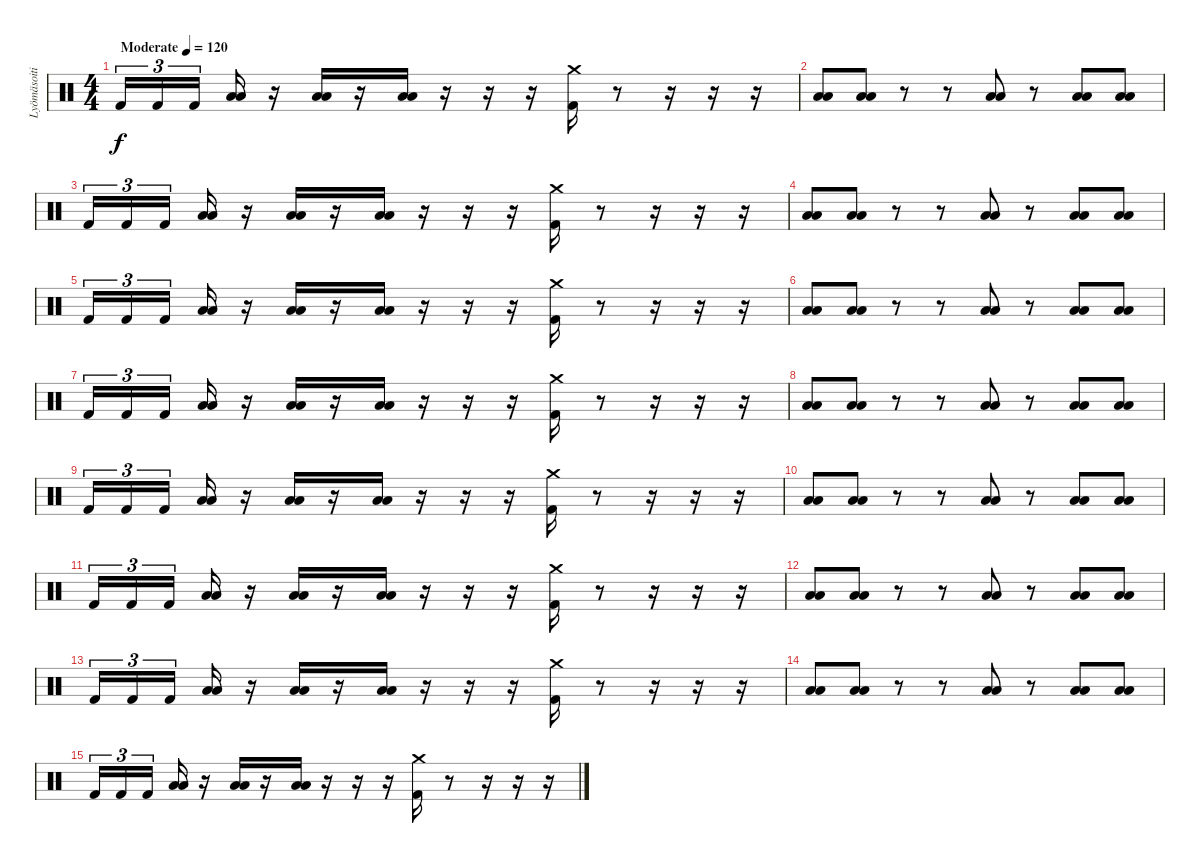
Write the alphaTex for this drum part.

\track ("Lyömäsoitin" "Lyömäsoiti") {instrument percussion}
\staff {score}
\articulation defaults
\ts (4 4)
\tempo (120 "Moderate")
\clef neutral
\ks c "Kick (hit) 2".16{tu (3 2) dy f} "Kick (hit) 2".16{tu (3 2)} "Kick (hit) 2".16{tu (3 2) beam splitsecondary}
("Low Tom (hit)" "Low Floor Tom (hit)").16 r.16 ("Low Tom (hit)" "Low Floor Tom (hit)").16 r.16 ("Low Tom (hit)" "Low Floor Tom (hit)").16 r.16 r.16 r.16 ("Crash medium (hit)" "Kick (hit) 2").16 r.8 r.16 r.16 r.16 |
("Low Tom (hit)" "Low Floor Tom (hit)").8 ("Low Tom (hit)" "Low Floor Tom (hit)").8 r.8 r.8 ("Low Tom (hit)" "Low Floor Tom (hit)").8 r.8 ("Low Tom (hit)" "Low Floor Tom (hit)").8 ("Low Tom (hit)" "Low Floor Tom (hit)").8 |
"Kick (hit) 2".16{tu (3 2)} "Kick (hit) 2".16{tu (3 2)} "Kick (hit) 2".16{tu (3 2) beam splitsecondary} ("Low Tom (hit)" "Low Floor Tom (hit)").16 r.16 ("Low Tom (hit)" "Low Floor Tom (hit)").16 r.16 ("Low Tom (hit)" "Low Floor Tom (hit)").16 r.16 r.16 r.16 ("Crash medium (hit)" "Kick (hit) 2").16 r.8 r.16 r.16 r.16 |
("Low Tom (hit)" "Low Floor Tom (hit)").8 ("Low Tom (hit)" "Low Floor Tom (hit)").8 r.8 r.8 ("Low Tom (hit)" "Low Floor Tom (hit)").8 r.8 ("Low Tom (hit)" "Low Floor Tom (hit)").8 ("Low Tom (hit)" "Low Floor Tom (hit)").8 |
"Kick (hit) 2".16{tu (3 2)} "Kick (hit) 2".16{tu (3 2)} "Kick (hit) 2".16{tu (3 2) beam splitsecondary} ("Low Tom (hit)" "Low Floor Tom (hit)").16 r.16 ("Low Tom (hit)" "Low Floor Tom (hit)").16 r.16 ("Low Tom (hit)" "Low Floor Tom (hit)").16 r.16 r.16 r.16 ("Crash medium (hit)" "Kick (hit) 2").16 r.8 r.16 r.16 r.16 |
("Low Tom (hit)" "Low Floor Tom (hit)").8 ("Low Tom (hit)" "Low Floor Tom (hit)").8 r.8 r.8 ("Low Tom (hit)" "Low Floor Tom (hit)").8 r.8 ("Low Tom (hit)" "Low Floor Tom (hit)").8 ("Low Tom (hit)" "Low Floor Tom (hit)").8 |
"Kick (hit) 2".16{tu (3 2)} "Kick (hit) 2".16{tu (3 2)} "Kick (hit) 2".16{tu (3 2) beam splitsecondary} ("Low Tom (hit)" "Low Floor Tom (hit)").16 r.16 ("Low Tom (hit)" "Low Floor Tom (hit)").16 r.16 ("Low Tom (hit)" "Low Floor Tom (hit)").16 r.16 r.16 r.16 ("Crash medium (hit)" "Kick (hit) 2").16 r.8 r.16 r.16 r.16 |
("Low Tom (hit)" "Low Floor Tom (hit)").8 ("Low Tom (hit)" "Low Floor Tom (hit)").8 r.8 r.8 ("Low Tom (hit)" "Low Floor Tom (hit)").8 r.8 ("Low Tom (hit)" "Low Floor Tom (hit)").8 ("Low Tom (hit)" "Low Floor Tom (hit)").8 |
"Kick (hit) 2".16{tu (3 2)} "Kick (hit) 2".16{tu (3 2)} "Kick (hit) 2".16{tu (3 2) beam splitsecondary} ("Low Tom (hit)" "Low Floor Tom (hit)").16 r.16 ("Low Tom (hit)" "Low Floor Tom (hit)").16 r.16 ("Low Tom (hit)" "Low Floor Tom (hit)").16 r.16 r.16 r.16 ("Crash medium (hit)" "Kick (hit) 2").16 r.8 r.16 r.16 r.16 |
("Low Tom (hit)" "Low Floor Tom (hit)").8 ("Low Tom (hit)" "Low Floor Tom (hit)").8 r.8 r.8 ("Low Tom (hit)" "Low Floor Tom (hit)").8 r.8 ("Low Tom (hit)" "Low Floor Tom (hit)").8 ("Low Tom (hit)" "Low Floor Tom (hit)").8 |
"Kick (hit) 2".16{tu (3 2)} "Kick (hit) 2".16{tu (3 2)} "Kick (hit) 2".16{tu (3 2) beam splitsecondary} ("Low Tom (hit)" "Low Floor Tom (hit)").16 r.16 ("Low Tom (hit)" "Low Floor Tom (hit)").16 r.16 ("Low Tom (hit)" "Low Floor Tom (hit)").16 r.16 r.16 r.16 ("Crash medium (hit)" "Kick (hit) 2").16 r.8 r.16 r.16 r.16 |
("Low Tom (hit)" "Low Floor Tom (hit)").8 ("Low Tom (hit)" "Low Floor Tom (hit)").8 r.8 r.8 ("Low Tom (hit)" "Low Floor Tom (hit)").8 r.8 ("Low Tom (hit)" "Low Floor Tom (hit)").8 ("Low Tom (hit)" "Low Floor Tom (hit)").8 |
"Kick (hit) 2".16{tu (3 2)} "Kick (hit) 2".16{tu (3 2)} "Kick (hit) 2".16{tu (3 2) beam splitsecondary} ("Low Tom (hit)" "Low Floor Tom (hit)").16 r.16 ("Low Tom (hit)" "Low Floor Tom (hit)").16 r.16 ("Low Tom (hit)" "Low Floor Tom (hit)").16 r.16 r.16 r.16 ("Crash medium (hit)" "Kick (hit) 2").16 r.8 r.16 r.16 r.16 |
("Low Tom (hit)" "Low Floor Tom (hit)").8 ("Low Tom (hit)" "Low Floor Tom (hit)").8 r.8 r.8 ("Low Tom (hit)" "Low Floor Tom (hit)").8 r.8 ("Low Tom (hit)" "Low Floor Tom (hit)").8 ("Low Tom (hit)" "Low Floor Tom (hit)").8 |
"Kick (hit) 2".16{tu (3 2)} "Kick (hit) 2".16{tu (3 2)} "Kick (hit) 2".16{tu (3 2) beam splitsecondary} ("Low Tom (hit)" "Low Floor Tom (hit)").16 r.16 ("Low Tom (hit)" "Low Floor Tom (hit)").16 r.16 ("Low Tom (hit)" "Low Floor Tom (hit)").16 r.16 r.16 r.16 ("Crash medium (hit)" "Kick (hit) 2").16 r.8 r.16 r.16 r.16
